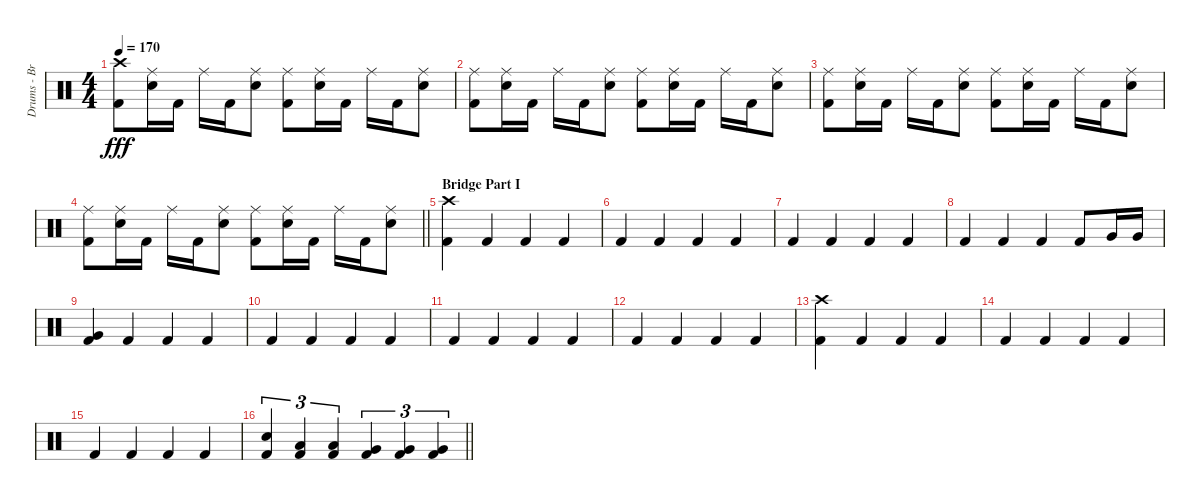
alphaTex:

\track ("Drums - Brandon" "Drums - Br") {instrument percussion}
\staff {score}
\articulation defaults
\ts (4 4)
\tempo 170
\clef neutral
\ks c
("Crash high (hit)" "Kick (hit) 2").8{dy fff} ("Ride (middle)" "Electric Snare (hit)").16 "Kick (hit) 2".16 "Ride (middle)".16 "Kick (hit) 2".16 ("Ride (middle)" "Electric Snare (hit)").8 ("Ride (middle)" "Kick (hit) 2").8 ("Ride (middle)" "Electric Snare (hit)").16 "Kick (hit) 2".16 "Ride (middle)".16 "Kick (hit) 2".16 ("Ride (middle)" "Electric Snare (hit)").8 |
("Ride (middle)" "Kick (hit) 2").8 ("Ride (middle)" "Electric Snare (hit)").16 "Kick (hit) 2".16 "Ride (middle)".16 "Kick (hit) 2".16 ("Ride (middle)" "Electric Snare (hit)").8 ("Ride (middle)" "Kick (hit) 2").8 ("Ride (middle)" "Electric Snare (hit)").16 "Kick (hit) 2".16 "Ride (middle)".16 "Kick (hit) 2".16 ("Ride (middle)" "Electric Snare (hit)").8 |
("Ride (middle)" "Kick (hit) 2").8 ("Ride (middle)" "Electric Snare (hit)").16 "Kick (hit) 2".16 "Ride (middle)".16 "Kick (hit) 2".16 ("Ride (middle)" "Electric Snare (hit)").8 ("Ride (middle)" "Kick (hit) 2").8 ("Ride (middle)" "Electric Snare (hit)").16 "Kick (hit) 2".16 "Ride (middle)".16 "Kick (hit) 2".16 ("Ride (middle)" "Electric Snare (hit)").8 |
\barLineRight lightlight
("Ride (middle)" "Kick (hit) 2").8 ("Ride (middle)" "Electric Snare (hit)").16 "Kick (hit) 2".16 "Ride (middle)".16 "Kick (hit) 2".16 ("Ride (middle)" "Electric Snare (hit)").8 ("Ride (middle)" "Kick (hit) 2").8 ("Ride (middle)" "Electric Snare (hit)").16 "Kick (hit) 2".16 "Ride (middle)".16 "Kick (hit) 2".16 ("Ride (middle)" "Electric Snare (hit)").8 |
\section ("" "Bridge Part I")
("Crash high (hit)" "Kick (hit) 2").4 "Kick (hit) 2".4 "Kick (hit) 2".4 "Kick (hit) 2".4 |
"Kick (hit) 2".4 "Kick (hit) 2".4 "Kick (hit) 2".4 "Kick (hit) 2".4 |
"Kick (hit) 2".4 "Kick (hit) 2".4 "Kick (hit) 2".4 "Kick (hit) 2".4 |
"Kick (hit) 2".4 "Kick (hit) 2".4 "Kick (hit) 2".4 "Kick (hit) 2".8 "Very Low Tom (hit)".16 "Very Low Tom (hit)".16 |
("Very Low Tom (hit)" "Kick (hit) 2").4 "Kick (hit) 2".4 "Kick (hit) 2".4 "Kick (hit) 2".4 |
"Kick (hit) 2".4 "Kick (hit) 2".4 "Kick (hit) 2".4 "Kick (hit) 2".4 |
"Kick (hit) 2".4 "Kick (hit) 2".4 "Kick (hit) 2".4 "Kick (hit) 2".4 |
"Kick (hit) 2".4 "Kick (hit) 2".4 "Kick (hit) 2".4 "Kick (hit) 2".4 |
("Crash high (hit)" "Kick (hit) 2").4 "Kick (hit) 2".4 "Kick (hit) 2".4 "Kick (hit) 2".4 |
"Kick (hit) 2".4 "Kick (hit) 2".4 "Kick (hit) 2".4 "Kick (hit) 2".4 |
"Kick (hit) 2".4 "Kick (hit) 2".4 "Kick (hit) 2".4 "Kick (hit) 2".4 |
\barLineRight lightlight
("Electric Snare (hit)" "Kick (hit) 2").4{tu (3 2)} ("Low Tom (hit)" "Kick (hit) 2").4{tu (3 2)} ("Low Tom (hit)" "Kick (hit) 2").4{tu (3 2)} ("Very Low Tom (hit)" "Kick (hit) 2").4{tu (3 2)} ("Very Low Tom (hit)" "Kick (hit) 2").4{tu (3 2)} ("Very Low Tom (hit)" "Kick (hit) 2").4{tu (3 2)}
